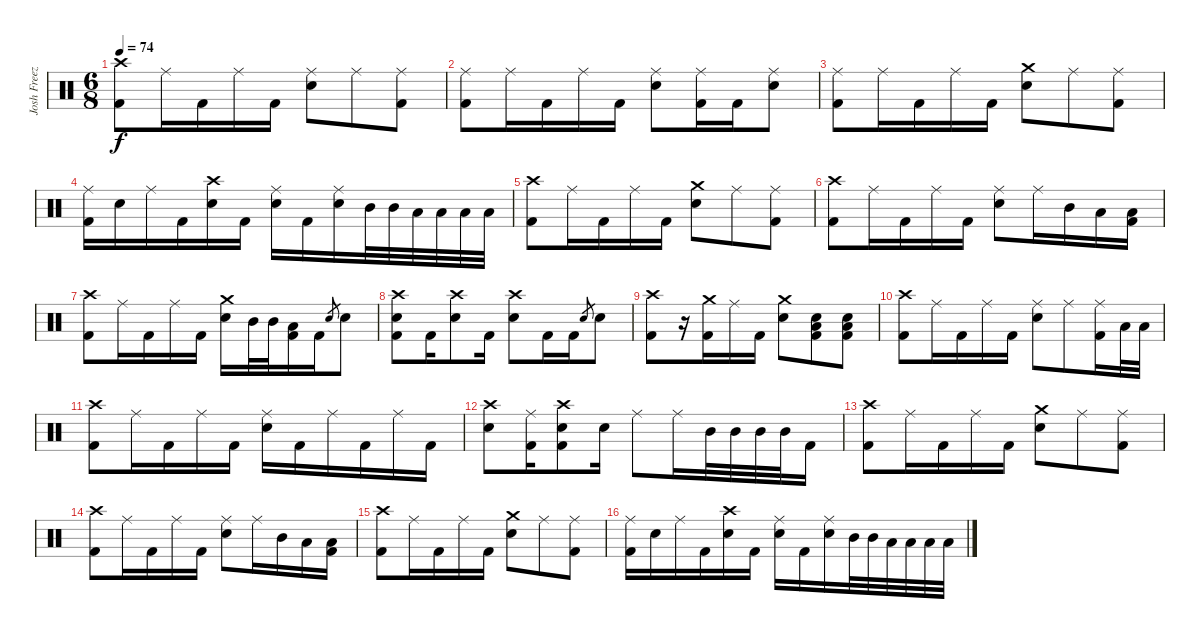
\track ("Josh Freeze - Drums" "Josh Freez") {instrument percussion}
\staff {score}
\articulation defaults
\ts (6 8)
\tempo 74
\clef neutral
\ks c
("Crash high (hit)" "Kick (hit) 2").8{dy f} "Ride (middle)".16 "Kick (hit) 2".16 "Ride (middle)".16 "Kick (hit) 2".16 ("Ride (middle)" "Electric Snare (hit)").8 "Ride (middle)".8 ("Ride (middle)" "Kick (hit) 2").8 |
("Ride (middle)" "Kick (hit) 2").8 "Ride (middle)".16 "Kick (hit) 2".16 "Ride (middle)".16 "Kick (hit) 2".16 ("Ride (middle)" "Electric Snare (hit)").8 ("Ride (middle)" "Kick (hit) 2").16 "Kick (hit) 2".16 ("Ride (middle)" "Electric Snare (hit)").8 |
("Ride (middle)" "Kick (hit) 2").8 "Ride (middle)".16 "Kick (hit) 2".16 "Ride (middle)".16 "Kick (hit) 2".16 ("Crash medium (hit)" "Electric Snare (hit)").8 "Ride (middle)".8 ("Ride (middle)" "Kick (hit) 2").8 |
("Ride (middle)" "Kick (hit) 2").16 "Electric Snare (hit)".16 "Ride (middle)".16 "Kick (hit) 2".16 ("Crash high (hit)" "Electric Snare (hit)").16 "Kick (hit) 2".16 ("Ride (middle)" "Electric Snare (hit)").16 "Kick (hit) 2".16 ("Ride (middle)" "Electric Snare (hit)").16 "Mid Tom (hit)".32 "Mid Tom (hit)".32 "Low Tom (hit)".32 "Low Tom (hit)".32 "Low Tom (hit)".32 "Low Tom (hit)".32 |
("Crash high (hit)" "Kick (hit) 2").8 "Ride (middle)".16 "Kick (hit) 2".16 "Ride (middle)".16 "Kick (hit) 2".16 ("Crash medium (hit)" "Electric Snare (hit)").8 "Ride (middle)".8 ("Ride (middle)" "Kick (hit) 2").8 |
("Crash high (hit)" "Kick (hit) 2").8 "Ride (middle)".16 "Kick (hit) 2".16 "Ride (middle)".16 "Kick (hit) 2".16 ("Ride (middle)" "Electric Snare (hit)").8 "Ride (middle)".16 "Mid Tom (hit)".16 "Low Tom (hit)".16 ("Low Tom (hit)" "Kick (hit) 2").16 |
("Crash high (hit)" "Kick (hit) 2").8 "Ride (middle)".16 "Kick (hit) 2".16 "Ride (middle)".16 "Kick (hit) 2".16 ("Crash medium (hit)" "Electric Snare (hit)").16 "Mid Tom (hit)".32 "Mid Tom (hit)".32 ("Low Tom (hit)" "Kick (hit) 2").16 "Kick (hit) 2".16 "Electric Snare (hit)".8{gr} "Electric Snare (hit)".8 |
("Crash high (hit)" "Electric Snare (hit)" "Kick (hit) 2").8 "Kick (hit) 2".16 ("Crash high (hit)" "Electric Snare (hit)").8 "Kick (hit) 2".16 ("Crash high (hit)" "Electric Snare (hit)").8 "Kick (hit) 2".16 "Kick (hit) 2".16 "Electric Snare (hit)".8{gr} "Electric Snare (hit)".8 |
("Crash high (hit)" "Kick (hit) 2").8 r.16 ("Crash medium (hit)" "Kick (hit) 2").16 "Ride (middle)".16 "Kick (hit) 2".16 ("Crash medium (hit)" "Electric Snare (hit)").8 ("Electric Snare (hit)" "Low Tom (hit)" "Kick (hit) 2").8 ("Electric Snare (hit)" "Low Tom (hit)" "Kick (hit) 2").8 |
("Crash high (hit)" "Kick (hit) 2").8 "Ride (middle)".16 "Kick (hit) 2".16 "Ride (middle)".16 "Kick (hit) 2".16 ("Ride (middle)" "Electric Snare (hit)").8 "Ride (middle)".8 ("Ride (middle)" "Kick (hit) 2").16 "Low Tom (hit)".32 "Low Tom (hit)".32 |
("Crash high (hit)" "Kick (hit) 2").8 "Ride (middle)".16 "Kick (hit) 2".16 "Ride (middle)".16 "Kick (hit) 2".16 ("Ride (middle)" "Electric Snare (hit)").16 "Kick (hit) 2".16 "Ride (middle)".16 "Kick (hit) 2".16 "Ride (middle)".16 "Kick (hit) 2".16 |
("Crash high (hit)" "Electric Snare (hit)").8 ("Ride (middle)" "Kick (hit) 2").16 ("Crash high (hit)" "Electric Snare (hit)" "Kick (hit) 2").8 "Electric Snare (hit)".16 "Ride (middle)".8 "Ride (middle)".16 "Mid Tom (hit)".32 "Mid Tom (hit)".32 "Mid Tom (hit)".32 "Mid Tom (hit)".32 "Kick (hit) 2".16 |
("Crash high (hit)" "Kick (hit) 2").8 "Ride (middle)".16 "Kick (hit) 2".16 "Ride (middle)".16 "Kick (hit) 2".16 ("Crash medium (hit)" "Electric Snare (hit)").8 "Ride (middle)".8 ("Ride (middle)" "Kick (hit) 2").8 |
("Crash high (hit)" "Kick (hit) 2").8 "Ride (middle)".16 "Kick (hit) 2".16 "Ride (middle)".16 "Kick (hit) 2".16 ("Ride (middle)" "Electric Snare (hit)").8 "Ride (middle)".16 "Mid Tom (hit)".16 "Low Tom (hit)".16 ("Low Tom (hit)" "Kick (hit) 2").16 |
("Crash high (hit)" "Kick (hit) 2").8 "Ride (middle)".16 "Kick (hit) 2".16 "Ride (middle)".16 "Kick (hit) 2".16 ("Crash medium (hit)" "Electric Snare (hit)").8 "Ride (middle)".8 ("Ride (middle)" "Kick (hit) 2").8 |
("Ride (middle)" "Kick (hit) 2").16 "Electric Snare (hit)".16 "Ride (middle)".16 "Kick (hit) 2".16 ("Crash high (hit)" "Electric Snare (hit)").16 "Kick (hit) 2".16 ("Ride (middle)" "Electric Snare (hit)").16 "Kick (hit) 2".16 ("Ride (middle)" "Electric Snare (hit)").16 "Mid Tom (hit)".32 "Mid Tom (hit)".32 "Low Tom (hit)".32 "Low Tom (hit)".32 "Low Tom (hit)".32 "Low Tom (hit)".32
